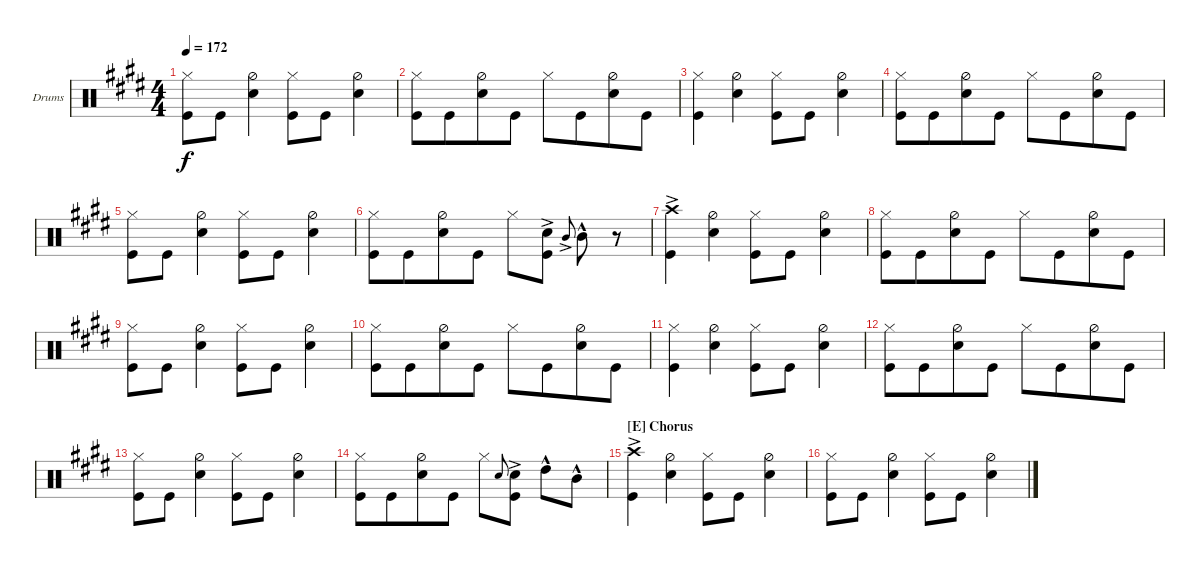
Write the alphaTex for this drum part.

\bracketExtendMode groupsimilarinstruments
\firstSystemTrackNameOrientation horizontal
\otherSystemsTrackNameOrientation horizontal
\track ("Drums" "Drums") {instrument percussion}
\staff {score}
\articulation defaults
\ts (4 4)
\tempo 172
\clef neutral
\ks e
("Hi-Hat (closed)" "Kick (hit)").8{dy f} "Kick (hit)".8{beam merge} ("Hi-Hat (half)" "Snare (hit) 2").4 ("Hi-Hat (closed)" "Kick (hit)").8 "Kick (hit)".8{beam merge} ("Hi-Hat (half)" "Snare (hit) 2").4 |
("Hi-Hat (closed)" "Kick (hit)").8 "Kick (hit)".8{beam merge} ("Hi-Hat (half)" "Snare (hit) 2").8 "Kick (hit)".8 "Hi-Hat (closed)".8 "Kick (hit)".8{beam merge} ("Hi-Hat (half)" "Snare (hit) 2").8 "Kick (hit)".8 |
("Hi-Hat (closed)" "Kick (hit)").4 ("Snare (hit) 2" "Hi-Hat (half)").4 ("Kick (hit)" "Hi-Hat (closed)").8 "Kick (hit)".8{beam merge} ("Hi-Hat (half)" "Snare (hit) 2").4 |
("Hi-Hat (closed)" "Kick (hit)").8 "Kick (hit)".8{beam merge} ("Hi-Hat (half)" "Snare (hit) 2").8 "Kick (hit)".8 "Hi-Hat (closed)".8 "Kick (hit)".8{beam merge} ("Hi-Hat (half)" "Snare (hit) 2").8 "Kick (hit)".8 |
("Hi-Hat (closed)" "Kick (hit)").8 "Kick (hit)".8{beam merge} ("Hi-Hat (half)" "Snare (hit) 2").4 ("Hi-Hat (closed)" "Kick (hit)").8 "Kick (hit)".8{beam merge} ("Hi-Hat (half)" "Snare (hit) 2").4 |
("Hi-Hat (closed)" "Kick (hit)").8 "Kick (hit)".8{beam merge} ("Hi-Hat (half)" "Snare (hit) 2").8 "Kick (hit)".8 "Hi-Hat (closed)".8 ("Kick (hit)" "Snare (hit) 2"{ac}).8 "Mid Tom (hit)"{ac}.8{gr onbeat} "Mid Tom (hit)"{hac}.8 r.8 |
("Kick (hit)" "Crash high (hit)"{ac}).4 ("Snare (hit) 2" "Hi-Hat (half)").4 ("Kick (hit)" "Hi-Hat (closed)").8 "Kick (hit)".8{beam merge} ("Hi-Hat (half)" "Snare (hit) 2").4 |
("Hi-Hat (closed)" "Kick (hit)").8 "Kick (hit)".8{beam merge} ("Hi-Hat (half)" "Snare (hit) 2").8 "Kick (hit)".8 "Hi-Hat (closed)".8 "Kick (hit)".8{beam merge} ("Hi-Hat (half)" "Snare (hit) 2").8 "Kick (hit)".8 |
("Hi-Hat (closed)" "Kick (hit)").8 "Kick (hit)".8{beam merge} ("Hi-Hat (half)" "Snare (hit) 2").4 ("Hi-Hat (closed)" "Kick (hit)").8 "Kick (hit)".8{beam merge} ("Hi-Hat (half)" "Snare (hit) 2").4 |
("Hi-Hat (closed)" "Kick (hit)").8 "Kick (hit)".8{beam merge} ("Hi-Hat (half)" "Snare (hit) 2").8 "Kick (hit)".8 "Hi-Hat (closed)".8 "Kick (hit)".8{beam merge} ("Hi-Hat (half)" "Snare (hit) 2").8 "Kick (hit)".8 |
("Hi-Hat (closed)" "Kick (hit)").4 ("Hi-Hat (half)" "Snare (hit) 2").4 ("Kick (hit)" "Hi-Hat (closed)").8 "Kick (hit)".8{beam merge} ("Hi-Hat (half)" "Snare (hit) 2").4 |
("Hi-Hat (closed)" "Kick (hit)").8 "Kick (hit)".8{beam merge} ("Hi-Hat (half)" "Snare (hit) 2").8 "Kick (hit)".8 "Hi-Hat (closed)".8 "Kick (hit)".8{beam merge} ("Hi-Hat (half)" "Snare (hit) 2").8 "Kick (hit)".8 |
("Hi-Hat (closed)" "Kick (hit)").8{beam merge} "Kick (hit)".8{beam merge} ("Hi-Hat (half)" "Snare (hit) 2").4 ("Hi-Hat (closed)" "Kick (hit)").8{beam merge} "Kick (hit)".8{beam merge} ("Hi-Hat (half)" "Snare (hit) 2").4 |
("Hi-Hat (closed)" "Kick (hit)").8 "Kick (hit)".8{beam merge} ("Hi-Hat (half)" "Snare (hit) 2").8 "Kick (hit)".8 "Hi-Hat (closed)".8 "Snare (hit) 2".8{gr onbeat} ("Kick (hit)" "Snare (hit) 2"{ac}).8 "High Tom (hit)"{hac}.8 "Mid Tom (hit)"{hac}.8 |
\section ("E" "Chorus")
("Kick (hit)" "Crash high (hit)"{ac}).4 ("Hi-Hat (half)" "Snare (hit) 2").4 ("Kick (hit)" "Hi-Hat (closed)").8 "Kick (hit)".8{beam merge} ("Hi-Hat (half)" "Snare (hit) 2").4 |
("Hi-Hat (closed)" "Kick (hit)").8 "Kick (hit)".8{beam merge} ("Hi-Hat (half)" "Snare (hit) 2").4 ("Hi-Hat (closed)" "Kick (hit)").8 "Kick (hit)".8{beam merge} ("Hi-Hat (half)" "Snare (hit) 2").4
